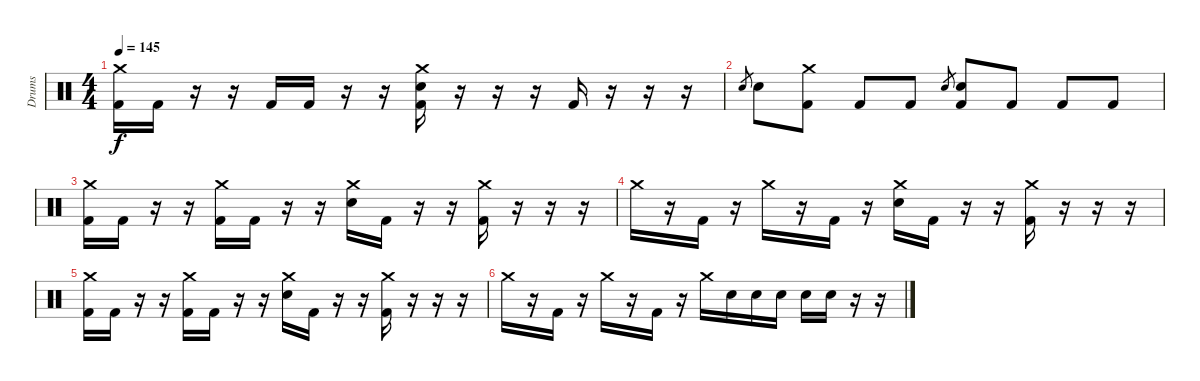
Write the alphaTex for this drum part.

\track ("Drums" "Drums") {instrument percussion}
\staff {score}
\articulation defaults
\ts (4 4)
\tempo 145
\clef neutral
\ks c
("Crash medium (hit)" "Kick (hit) 2").16{dy f} "Kick (hit) 2".16 r.16 r.16 "Kick (hit) 2".16 "Kick (hit) 2".16 r.16 r.16 ("Crash medium (hit)" "Electric Snare (hit)" "Kick (hit) 2").16 r.16 r.16 r.16 "Kick (hit) 2".16 r.16 r.16 r.16 |
"Electric Snare (hit)".8{gr} "Electric Snare (hit)".8 ("Crash medium (hit)" "Kick (hit) 2").8 "Kick (hit) 2".8 "Kick (hit) 2".8 "Electric Snare (hit)".8{gr} ("Electric Snare (hit)" "Kick (hit) 2").8 "Kick (hit) 2".8 "Kick (hit) 2".8 "Kick (hit) 2".8 |
("Crash medium (hit)" "Kick (hit) 2").16 "Kick (hit) 2".16 r.16 r.16 ("Crash medium (hit)" "Kick (hit) 2").16 "Kick (hit) 2".16 r.16 r.16 ("Crash medium (hit)" "Electric Snare (hit)").16 "Kick (hit) 2".16 r.16 r.16 ("Crash medium (hit)" "Kick (hit) 2").16 r.16 r.16 r.16 |
"Crash medium (hit)".16 r.16 "Kick (hit) 2".16 r.16 "Crash medium (hit)".16 r.16 "Kick (hit) 2".16 r.16 ("Crash medium (hit)" "Electric Snare (hit)").16 "Kick (hit) 2".16 r.16 r.16 ("Crash medium (hit)" "Kick (hit) 2").16 r.16 r.16 r.16 |
("Crash medium (hit)" "Kick (hit) 2").16 "Kick (hit) 2".16 r.16 r.16 ("Crash medium (hit)" "Kick (hit) 2").16 "Kick (hit) 2".16 r.16 r.16 ("Crash medium (hit)" "Electric Snare (hit)").16 "Kick (hit) 2".16 r.16 r.16 ("Crash medium (hit)" "Kick (hit) 2").16 r.16 r.16 r.16 |
"Crash medium (hit)".16 r.16 "Kick (hit) 2".16 r.16 "Crash medium (hit)".16 r.16 "Kick (hit) 2".16 r.16 "Crash medium (hit)".16 "Electric Snare (hit)".16 "Electric Snare (hit)".16 "Electric Snare (hit)".16 "Electric Snare (hit)".16 "Electric Snare (hit)".16 r.16 r.16
